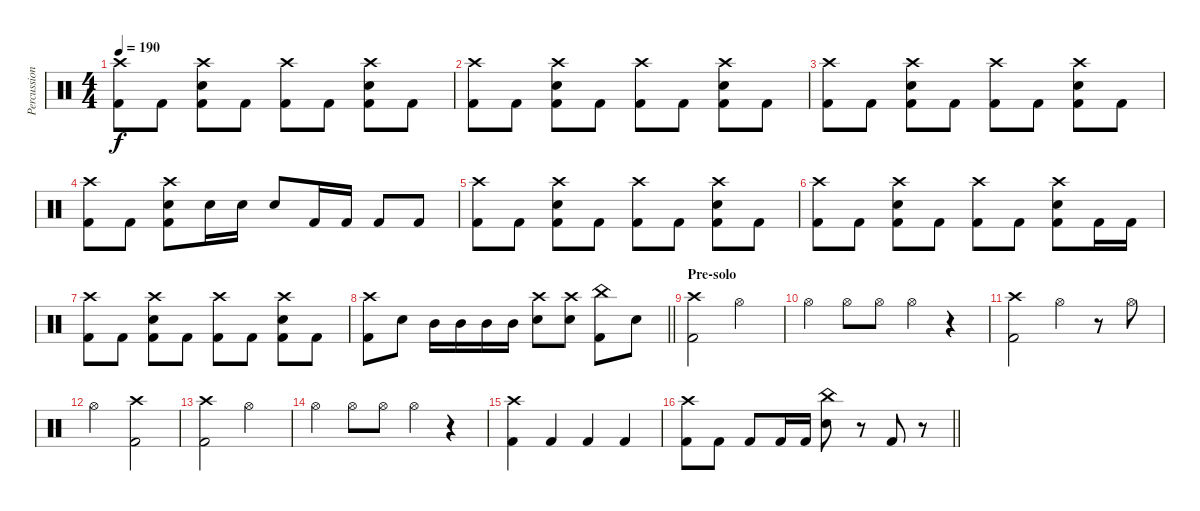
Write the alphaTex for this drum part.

\track ("Percussion" "Percussion") {instrument percussion}
\staff {score}
\articulation defaults
\ts (4 4)
\tempo 190
\clef neutral
\ks c
("Crash high (hit)" "Kick (hit) 2").8{dy f} "Kick (hit) 2".8 ("Crash high (hit)" "Snare (hit) 2" "Kick (hit) 2").8 "Kick (hit) 2".8 ("Crash high (hit)" "Kick (hit) 2").8 "Kick (hit) 2".8 ("Crash high (hit)" "Snare (hit) 2" "Kick (hit) 2").8 "Kick (hit) 2".8 |
("Crash high (hit)" "Kick (hit) 2").8 "Kick (hit) 2".8 ("Crash high (hit)" "Snare (hit) 2" "Kick (hit) 2").8 "Kick (hit) 2".8 ("Crash high (hit)" "Kick (hit) 2").8 "Kick (hit) 2".8 ("Crash high (hit)" "Snare (hit) 2" "Kick (hit) 2").8 "Kick (hit) 2".8 |
("Crash high (hit)" "Kick (hit) 2").8 "Kick (hit) 2".8 ("Crash high (hit)" "Snare (hit) 2" "Kick (hit) 2").8 "Kick (hit) 2".8 ("Crash high (hit)" "Kick (hit) 2").8 "Kick (hit) 2".8 ("Crash high (hit)" "Snare (hit) 2" "Kick (hit) 2").8 "Kick (hit) 2".8 |
("Crash high (hit)" "Kick (hit) 2").8 "Kick (hit) 2".8 ("Crash high (hit)" "Snare (hit) 2" "Kick (hit) 2").8 "Snare (hit) 2".16 "Snare (hit) 2".16 "Snare (hit) 2".8 "Kick (hit) 2".16 "Kick (hit) 2".16 "Kick (hit) 2".8 "Kick (hit) 2".8 |
("Crash high (hit)" "Kick (hit) 2").8 "Kick (hit) 2".8 ("Crash high (hit)" "Snare (hit) 2" "Kick (hit) 2").8 "Kick (hit) 2".8 ("Crash high (hit)" "Kick (hit) 2").8 "Kick (hit) 2".8 ("Crash high (hit)" "Snare (hit) 2" "Kick (hit) 2").8 "Kick (hit) 2".8 |
("Crash high (hit)" "Kick (hit) 2").8 "Kick (hit) 2".8 ("Crash high (hit)" "Snare (hit) 2" "Kick (hit) 2").8 "Kick (hit) 2".8 ("Crash high (hit)" "Kick (hit) 2").8 "Kick (hit) 2".8 ("Crash high (hit)" "Snare (hit) 2" "Kick (hit) 2").8 "Kick (hit) 2".16 "Kick (hit) 2".16 |
("Crash high (hit)" "Kick (hit) 2").8 "Kick (hit) 2".8 ("Crash high (hit)" "Snare (hit) 2" "Kick (hit) 2").8 "Kick (hit) 2".8 ("Crash high (hit)" "Kick (hit) 2").8 "Kick (hit) 2".8 ("Crash high (hit)" "Snare (hit) 2" "Kick (hit) 2").8 "Kick (hit) 2".8 |
\barLineRight lightlight
("Crash high (hit)" "Kick (hit) 2").8 "Snare (hit) 2".8 "Mid Tom (hit)".16 "Mid Tom (hit)".16 "Mid Tom (hit)".16 "Mid Tom (hit)".16 ("Crash high (hit)" "Snare (hit) 2").8 ("Crash high (hit)" "Snare (hit) 2").8 ("China (hit)" "Kick (hit) 2").8 "Snare (hit) 2".8 |
\section ("" "Pre-solo")
("Crash high (hit)" "Kick (hit) 2").2 "Hi-Hat (open)".2 |
"Hi-Hat (open)".4 "Hi-Hat (open)".8 "Hi-Hat (open)".8 "Hi-Hat (open)".4 r.4 |
("Crash high (hit)" "Kick (hit) 2").2 "Hi-Hat (open)".4 r.8 "Hi-Hat (open)".8 |
"Hi-Hat (open)".2 ("Crash high (hit)" "Kick (hit) 2").2 |
("Crash high (hit)" "Kick (hit) 2").2 "Hi-Hat (open)".2 |
"Hi-Hat (open)".4 "Hi-Hat (open)".8 "Hi-Hat (open)".8 "Hi-Hat (open)".4 r.4 |
("Crash high (hit)" "Kick (hit) 2").4 "Kick (hit) 2".4 "Kick (hit) 2".4 "Kick (hit) 2".4 |
\barLineRight lightlight
("Crash high (hit)" "Kick (hit) 2").8 "Kick (hit) 2".8 "Kick (hit) 2".8 "Kick (hit) 2".16 "Kick (hit) 2".16 ("China (hit)" "Snare (hit) 2").8 r.8 "Kick (hit) 2".8 r.8
